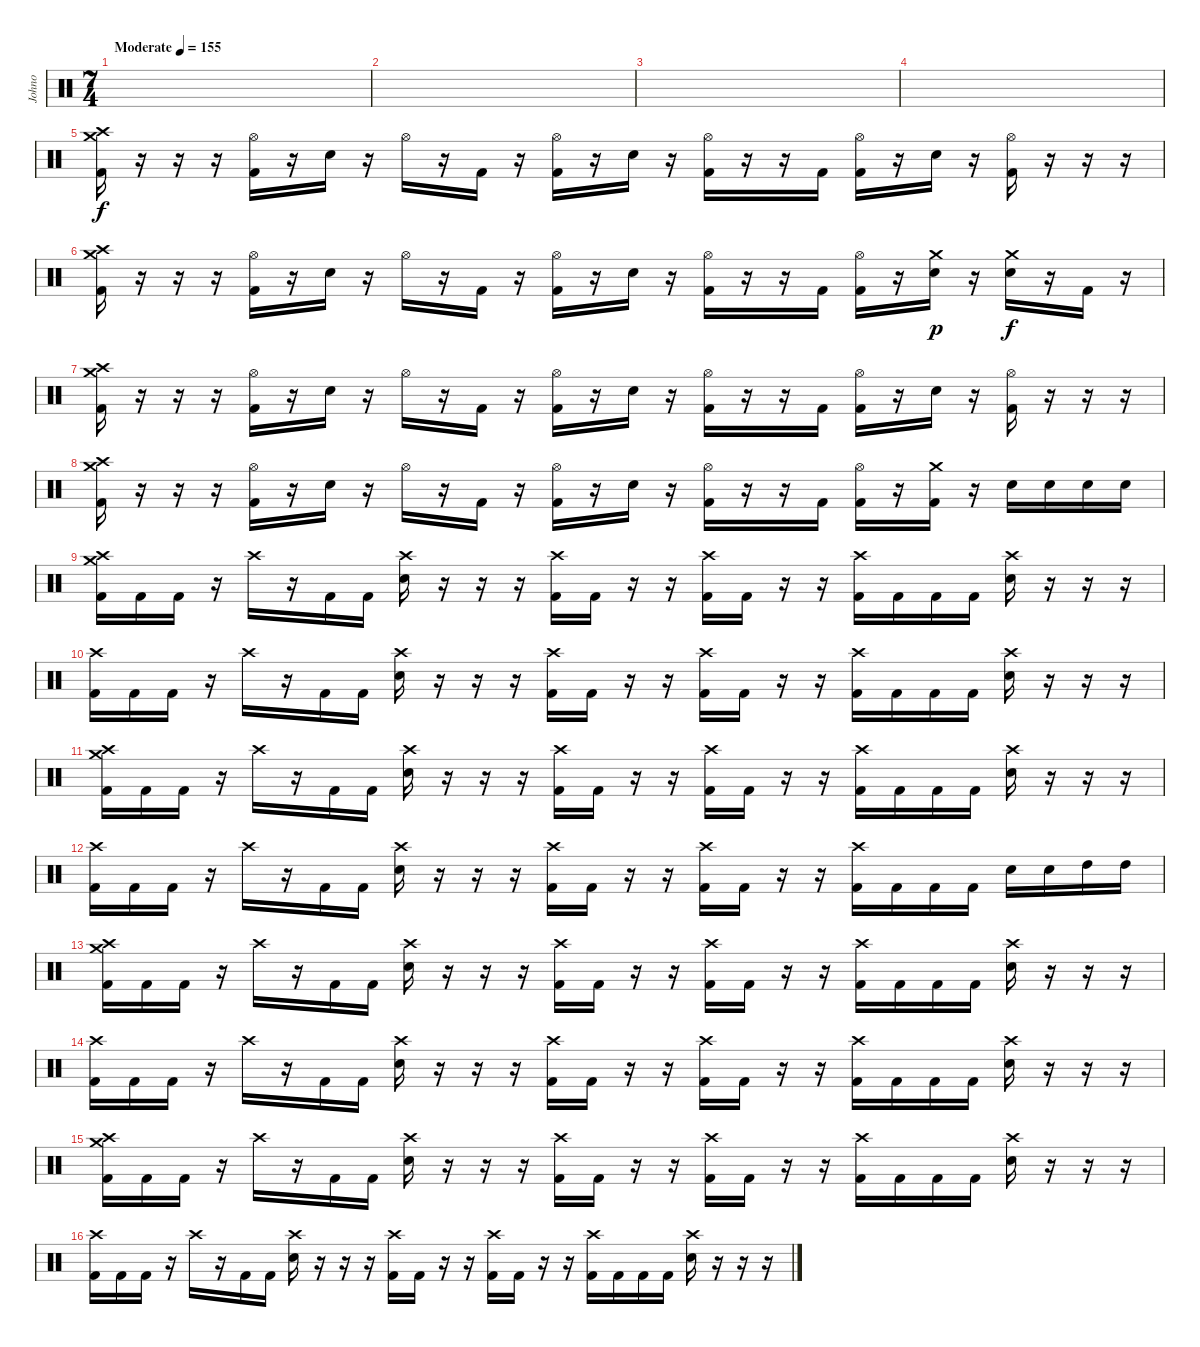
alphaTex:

\track ("Johno" "Johno") {instrument percussion}
\staff {score}
\articulation defaults
\ts (7 4)
\tempo (155 "Moderate")
\clef neutral
\ks c
|
|
|
|
("Crash medium (hit)" "Crash high (hit)" "Kick (hit) 2").16 r.16 r.16 r.16 ("Hi-Hat (open)" "Kick (hit) 2").16 r.16 "Electric Snare (hit)".16 r.16 "Hi-Hat (open)".16 r.16 "Kick (hit) 2".16 r.16 ("Hi-Hat (open)" "Kick (hit) 2").16 r.16 "Electric Snare (hit)".16 r.16 ("Hi-Hat (open)" "Kick (hit) 2").16 r.16 r.16 "Kick (hit) 2".16 ("Hi-Hat (open)" "Kick (hit) 2").16 r.16 "Electric Snare (hit)".16 r.16 ("Hi-Hat (open)" "Kick (hit) 2").16 r.16 r.16 r.16 |
("Crash medium (hit)" "Crash high (hit)" "Kick (hit) 2").16 r.16 r.16 r.16 ("Hi-Hat (open)" "Kick (hit) 2").16 r.16 "Electric Snare (hit)".16 r.16 "Hi-Hat (open)".16 r.16 "Kick (hit) 2".16 r.16 ("Hi-Hat (open)" "Kick (hit) 2").16 r.16 "Electric Snare (hit)".16 r.16 ("Hi-Hat (open)" "Kick (hit) 2").16 r.16 r.16 "Kick (hit) 2".16 ("Hi-Hat (open)" "Kick (hit) 2").16 r.16 ("Crash medium (hit)" "Electric Snare (hit)").16{dy p} r.16 ("Crash medium (hit)" "Electric Snare (hit)").16{dy f} r.16 "Kick (hit) 2".16 r.16 |
("Crash medium (hit)" "Crash high (hit)" "Kick (hit) 2").16 r.16 r.16 r.16 ("Hi-Hat (open)" "Kick (hit) 2").16 r.16 "Electric Snare (hit)".16 r.16 "Hi-Hat (open)".16 r.16 "Kick (hit) 2".16 r.16 ("Hi-Hat (open)" "Kick (hit) 2").16 r.16 "Electric Snare (hit)".16 r.16 ("Hi-Hat (open)" "Kick (hit) 2").16 r.16 r.16 "Kick (hit) 2".16 ("Hi-Hat (open)" "Kick (hit) 2").16 r.16 "Electric Snare (hit)".16 r.16 ("Hi-Hat (open)" "Kick (hit) 2").16 r.16 r.16 r.16 |
("Crash medium (hit)" "Crash high (hit)" "Kick (hit) 2").16 r.16 r.16 r.16 ("Hi-Hat (open)" "Kick (hit) 2").16 r.16 "Electric Snare (hit)".16 r.16 "Hi-Hat (open)".16 r.16 "Kick (hit) 2".16 r.16 ("Hi-Hat (open)" "Kick (hit) 2").16 r.16 "Electric Snare (hit)".16 r.16 ("Hi-Hat (open)" "Kick (hit) 2").16 r.16 r.16 "Kick (hit) 2".16 ("Hi-Hat (open)" "Kick (hit) 2").16 r.16 ("Crash medium (hit)" "Kick (hit) 2").16 r.16 "Electric Snare (hit)".16 "Electric Snare (hit)".16 "Electric Snare (hit)".16 "Electric Snare (hit)".16 |
("Crash high (hit)" "Crash medium (hit)" "Kick (hit) 2").16 "Kick (hit) 2".16 "Kick (hit) 2".16 r.16 "Crash high (hit)".16 r.16 "Kick (hit) 2".16 "Kick (hit) 2".16 ("Crash high (hit)" "Electric Snare (hit)").16 r.16 r.16 r.16 ("Crash high (hit)" "Kick (hit) 2").16 "Kick (hit) 2".16 r.16 r.16 ("Crash high (hit)" "Kick (hit) 2").16 "Kick (hit) 2".16 r.16 r.16 ("Crash high (hit)" "Kick (hit) 2").16 "Kick (hit) 2".16 "Kick (hit) 2".16 "Kick (hit) 2".16 ("Crash high (hit)" "Electric Snare (hit)").16 r.16 r.16 r.16 |
("Crash high (hit)" "Kick (hit) 2").16 "Kick (hit) 2".16 "Kick (hit) 2".16 r.16 "Crash high (hit)".16 r.16 "Kick (hit) 2".16 "Kick (hit) 2".16 ("Crash high (hit)" "Electric Snare (hit)").16 r.16 r.16 r.16 ("Crash high (hit)" "Kick (hit) 2").16 "Kick (hit) 2".16 r.16 r.16 ("Crash high (hit)" "Kick (hit) 2").16 "Kick (hit) 2".16 r.16 r.16 ("Crash high (hit)" "Kick (hit) 2").16 "Kick (hit) 2".16 "Kick (hit) 2".16 "Kick (hit) 2".16 ("Crash high (hit)" "Electric Snare (hit)").16 r.16 r.16 r.16 |
("Crash high (hit)" "Crash medium (hit)" "Kick (hit) 2").16 "Kick (hit) 2".16 "Kick (hit) 2".16 r.16 "Crash high (hit)".16 r.16 "Kick (hit) 2".16 "Kick (hit) 2".16 ("Crash high (hit)" "Electric Snare (hit)").16 r.16 r.16 r.16 ("Crash high (hit)" "Kick (hit) 2").16 "Kick (hit) 2".16 r.16 r.16 ("Crash high (hit)" "Kick (hit) 2").16 "Kick (hit) 2".16 r.16 r.16 ("Crash high (hit)" "Kick (hit) 2").16 "Kick (hit) 2".16 "Kick (hit) 2".16 "Kick (hit) 2".16 ("Crash high (hit)" "Electric Snare (hit)").16 r.16 r.16 r.16 |
("Crash high (hit)" "Kick (hit) 2").16 "Kick (hit) 2".16 "Kick (hit) 2".16 r.16 "Crash high (hit)".16 r.16 "Kick (hit) 2".16 "Kick (hit) 2".16 ("Crash high (hit)" "Electric Snare (hit)").16 r.16 r.16 r.16 ("Crash high (hit)" "Kick (hit) 2").16 "Kick (hit) 2".16 r.16 r.16 ("Crash high (hit)" "Kick (hit) 2").16 "Kick (hit) 2".16 r.16 r.16 ("Crash high (hit)" "Kick (hit) 2").16 "Kick (hit) 2".16 "Kick (hit) 2".16 "Kick (hit) 2".16 "Electric Snare (hit)".16 "Electric Snare (hit)".16 "High Tom (hit)".16 "High Tom (hit)".16 |
("Crash high (hit)" "Crash medium (hit)" "Kick (hit) 2").16 "Kick (hit) 2".16 "Kick (hit) 2".16 r.16 "Crash high (hit)".16 r.16 "Kick (hit) 2".16 "Kick (hit) 2".16 ("Crash high (hit)" "Electric Snare (hit)").16 r.16 r.16 r.16 ("Crash high (hit)" "Kick (hit) 2").16 "Kick (hit) 2".16 r.16 r.16 ("Crash high (hit)" "Kick (hit) 2").16 "Kick (hit) 2".16 r.16 r.16 ("Crash high (hit)" "Kick (hit) 2").16 "Kick (hit) 2".16 "Kick (hit) 2".16 "Kick (hit) 2".16 ("Crash high (hit)" "Electric Snare (hit)").16 r.16 r.16 r.16 |
("Crash high (hit)" "Kick (hit) 2").16 "Kick (hit) 2".16 "Kick (hit) 2".16 r.16 "Crash high (hit)".16 r.16 "Kick (hit) 2".16 "Kick (hit) 2".16 ("Crash high (hit)" "Electric Snare (hit)").16 r.16 r.16 r.16 ("Crash high (hit)" "Kick (hit) 2").16 "Kick (hit) 2".16 r.16 r.16 ("Crash high (hit)" "Kick (hit) 2").16 "Kick (hit) 2".16 r.16 r.16 ("Crash high (hit)" "Kick (hit) 2").16 "Kick (hit) 2".16 "Kick (hit) 2".16 "Kick (hit) 2".16 ("Crash high (hit)" "Electric Snare (hit)").16 r.16 r.16 r.16 |
("Crash high (hit)" "Crash medium (hit)" "Kick (hit) 2").16 "Kick (hit) 2".16 "Kick (hit) 2".16 r.16 "Crash high (hit)".16 r.16 "Kick (hit) 2".16 "Kick (hit) 2".16 ("Crash high (hit)" "Electric Snare (hit)").16 r.16 r.16 r.16 ("Crash high (hit)" "Kick (hit) 2").16 "Kick (hit) 2".16 r.16 r.16 ("Crash high (hit)" "Kick (hit) 2").16 "Kick (hit) 2".16 r.16 r.16 ("Crash high (hit)" "Kick (hit) 2").16 "Kick (hit) 2".16 "Kick (hit) 2".16 "Kick (hit) 2".16 ("Crash high (hit)" "Electric Snare (hit)").16 r.16 r.16 r.16 |
("Crash high (hit)" "Kick (hit) 2").16 "Kick (hit) 2".16 "Kick (hit) 2".16 r.16 "Crash high (hit)".16 r.16 "Kick (hit) 2".16 "Kick (hit) 2".16 ("Crash high (hit)" "Electric Snare (hit)").16 r.16 r.16 r.16 ("Crash high (hit)" "Kick (hit) 2").16 "Kick (hit) 2".16 r.16 r.16 ("Crash high (hit)" "Kick (hit) 2").16 "Kick (hit) 2".16 r.16 r.16 ("Crash high (hit)" "Kick (hit) 2").16 "Kick (hit) 2".16 "Kick (hit) 2".16 "Kick (hit) 2".16 ("Crash high (hit)" "Electric Snare (hit)").16 r.16 r.16 r.16
